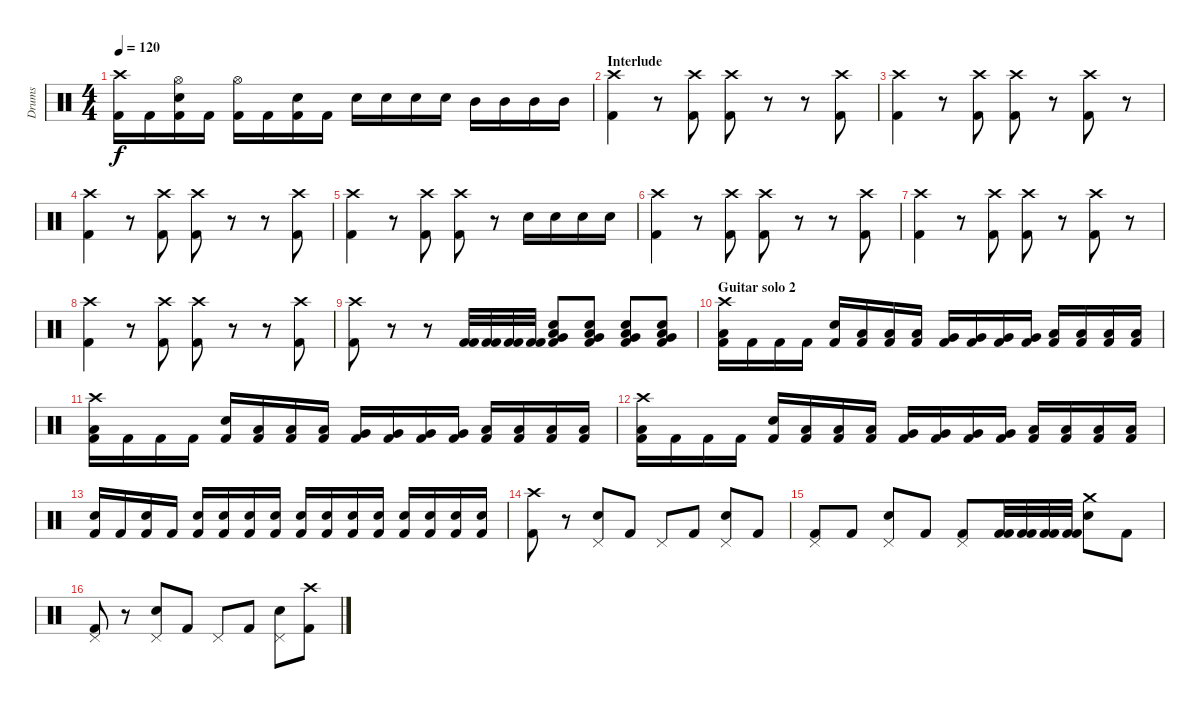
\track ("Drums" "Drums") {instrument percussion}
\staff {score}
\articulation defaults
\ts (4 4)
\tempo 120
\clef neutral
\ks c
("Crash high (hit)" "Kick (hit) 2").16{dy f} "Kick (hit) 2".16 ("Hi-Hat (open)" "Kick (hit) 2" "Electric Snare (hit)").16 "Kick (hit) 2".16 ("Hi-Hat (open)" "Kick (hit) 2").16 "Kick (hit) 2".16 ("Kick (hit) 2" "Electric Snare (hit)").16 "Kick (hit) 2".16 "Electric Snare (hit)".16 "Electric Snare (hit)".16 "Electric Snare (hit)".16 "Electric Snare (hit)".16 "Mid Tom (hit)".16 "Mid Tom (hit)".16 "Mid Tom (hit)".16 "Mid Tom (hit)".16 |
\section ("" "Interlude")
("Crash high (hit)" "Kick (hit) 2").4 r.8 ("Crash high (hit)" "Kick (hit) 2").8 ("Crash high (hit)" "Kick (hit) 2").8 r.8 r.8 ("Crash high (hit)" "Kick (hit) 2").8 |
("Crash high (hit)" "Kick (hit) 2").4 r.8 ("Crash high (hit)" "Kick (hit) 2").8 ("Crash high (hit)" "Kick (hit) 2").8 r.8 ("Crash high (hit)" "Kick (hit) 2").8 r.8 |
("Crash high (hit)" "Kick (hit) 2").4 r.8 ("Crash high (hit)" "Kick (hit) 2").8 ("Crash high (hit)" "Kick (hit) 2").8 r.8 r.8 ("Crash high (hit)" "Kick (hit) 2").8 |
("Crash high (hit)" "Kick (hit) 2").4 r.8 ("Crash high (hit)" "Kick (hit) 2").8 ("Crash high (hit)" "Kick (hit) 2").8 r.8 "Electric Snare (hit)".16 "Electric Snare (hit)".16 "Electric Snare (hit)".16 "Electric Snare (hit)".16 |
("Crash high (hit)" "Kick (hit) 2").4 r.8 ("Crash high (hit)" "Kick (hit) 2").8 ("Crash high (hit)" "Kick (hit) 2").8 r.8 r.8 ("Crash high (hit)" "Kick (hit) 2").8 |
("Crash high (hit)" "Kick (hit) 2").4 r.8 ("Crash high (hit)" "Kick (hit) 2").8 ("Crash high (hit)" "Kick (hit) 2").8 r.8 ("Crash high (hit)" "Kick (hit) 2").8 r.8 |
("Crash high (hit)" "Kick (hit) 2").4 r.8 ("Crash high (hit)" "Kick (hit) 2").8 ("Crash high (hit)" "Kick (hit) 2").8 r.8 r.8 ("Crash high (hit)" "Kick (hit) 2").8 |
("Crash high (hit)" "Kick (hit) 2").8 r.8 r.8 ("Kick (hit) 2" "Kick (hit) 2").32 ("Kick (hit) 2" "Kick (hit) 2").32 ("Kick (hit) 2" "Kick (hit) 2").32 ("Kick (hit) 2" "Kick (hit) 2").32 ("Electric Snare (hit)" "Kick (hit) 2" "Very Low Tom (hit)" "Low Tom (hit)").8 ("Electric Snare (hit)" "Kick (hit) 2" "Very Low Tom (hit)" "Low Tom (hit)").8 ("Electric Snare (hit)" "Kick (hit) 2" "Very Low Tom (hit)" "Low Tom (hit)").8 ("Electric Snare (hit)" "Kick (hit) 2" "Very Low Tom (hit)" "Low Tom (hit)").8 |
\section ("" "Guitar solo 2")
("Crash high (hit)" "Low Tom (hit)" "Kick (hit) 2").16 "Kick (hit) 2".16 "Kick (hit) 2".16 "Kick (hit) 2".16 ("Electric Snare (hit)" "Kick (hit) 2").16 ("Low Tom (hit)" "Kick (hit) 2").16 ("Low Tom (hit)" "Kick (hit) 2").16 ("Low Tom (hit)" "Kick (hit) 2").16 ("Very Low Tom (hit)" "Kick (hit) 2").16 ("Very Low Tom (hit)" "Kick (hit) 2").16 ("Very Low Tom (hit)" "Kick (hit) 2").16 ("Very Low Tom (hit)" "Kick (hit) 2").16 ("Low Floor Tom (hit)" "Kick (hit) 2").16 ("Low Floor Tom (hit)" "Kick (hit) 2").16 ("Low Floor Tom (hit)" "Kick (hit) 2").16 ("Low Floor Tom (hit)" "Kick (hit) 2").16 |
("Crash high (hit)" "Low Tom (hit)" "Kick (hit) 2").16 "Kick (hit) 2".16 "Kick (hit) 2".16 "Kick (hit) 2".16 ("Electric Snare (hit)" "Kick (hit) 2").16 ("Low Tom (hit)" "Kick (hit) 2").16 ("Low Tom (hit)" "Kick (hit) 2").16 ("Low Tom (hit)" "Kick (hit) 2").16 ("Very Low Tom (hit)" "Kick (hit) 2").16 ("Very Low Tom (hit)" "Kick (hit) 2").16 ("Very Low Tom (hit)" "Kick (hit) 2").16 ("Very Low Tom (hit)" "Kick (hit) 2").16 ("Low Floor Tom (hit)" "Kick (hit) 2").16 ("Low Floor Tom (hit)" "Kick (hit) 2").16 ("Low Floor Tom (hit)" "Kick (hit) 2").16 ("Low Floor Tom (hit)" "Kick (hit) 2").16 |
("Crash high (hit)" "Low Tom (hit)" "Kick (hit) 2").16 "Kick (hit) 2".16 "Kick (hit) 2".16 "Kick (hit) 2".16 ("Electric Snare (hit)" "Kick (hit) 2").16 ("Low Tom (hit)" "Kick (hit) 2").16 ("Low Tom (hit)" "Kick (hit) 2").16 ("Low Tom (hit)" "Kick (hit) 2").16 ("Very Low Tom (hit)" "Kick (hit) 2").16 ("Very Low Tom (hit)" "Kick (hit) 2").16 ("Very Low Tom (hit)" "Kick (hit) 2").16 ("Very Low Tom (hit)" "Kick (hit) 2").16 ("Low Floor Tom (hit)" "Kick (hit) 2").16 ("Low Floor Tom (hit)" "Kick (hit) 2").16 ("Low Floor Tom (hit)" "Kick (hit) 2").16 ("Low Floor Tom (hit)" "Kick (hit) 2").16 |
("Electric Snare (hit)" "Kick (hit) 2").16 "Kick (hit) 2".16 ("Electric Snare (hit)" "Kick (hit) 2").16 "Kick (hit) 2".16 ("Electric Snare (hit)" "Kick (hit) 2").16 ("Electric Snare (hit)" "Kick (hit) 2").16 ("Electric Snare (hit)" "Kick (hit) 2").16 ("Electric Snare (hit)" "Kick (hit) 2").16 ("Electric Snare (hit)" "Kick (hit) 2").16 ("Electric Snare (hit)" "Kick (hit) 2").16 ("Electric Snare (hit)" "Kick (hit) 2").16 ("Electric Snare (hit)" "Kick (hit) 2").16 ("Electric Snare (hit)" "Kick (hit) 2").16 ("Electric Snare (hit)" "Kick (hit) 2").16 ("Electric Snare (hit)" "Kick (hit) 2").16 ("Electric Snare (hit)" "Kick (hit) 2").16 |
("Crash high (hit)" "Kick (hit) 2").8 r.8 ("Pedal Hi-Hat (hit)" "Electric Snare (hit)").8 "Kick (hit) 2".8 "Pedal Hi-Hat (hit)".8 "Kick (hit) 2".8 ("Pedal Hi-Hat (hit)" "Electric Snare (hit)").8 "Kick (hit) 2".8 |
("Pedal Hi-Hat (hit)" "Kick (hit) 2").8 "Kick (hit) 2".8 ("Pedal Hi-Hat (hit)" "Electric Snare (hit)").8 "Kick (hit) 2".8 ("Pedal Hi-Hat (hit)" "Kick (hit) 2").8 ("Kick (hit) 2" "Kick (hit) 2").32 ("Kick (hit) 2" "Kick (hit) 2").32 ("Kick (hit) 2" "Kick (hit) 2").32 ("Kick (hit) 2" "Kick (hit) 2").32 ("Crash medium (hit)" "Electric Snare (hit)").8 "Kick (hit) 2".8 |
("Pedal Hi-Hat (hit)" "Kick (hit) 2").8 r.8 ("Pedal Hi-Hat (hit)" "Electric Snare (hit)").8 "Kick (hit) 2".8 "Pedal Hi-Hat (hit)".8 "Kick (hit) 2".8 ("Pedal Hi-Hat (hit)" "Electric Snare (hit)").8 ("Crash high (hit)" "Kick (hit) 2").8
